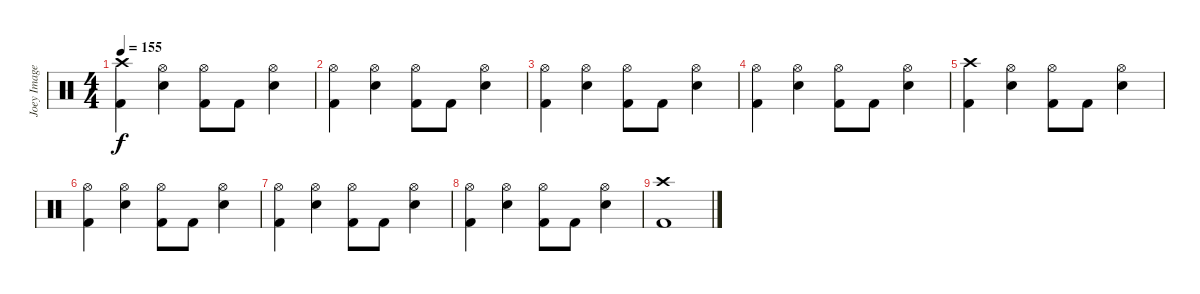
\track ("Joey Image" "Joey Image") {instrument percussion}
\staff {score}
\articulation defaults
\ts (4 4)
\tempo 155
\clef neutral
\ks c
("Crash high (hit)" "Kick (hit) 2").4{dy f} ("Hi-Hat (open)" "Snare (hit) 2").4 ("Hi-Hat (open)" "Kick (hit) 2").8 "Kick (hit) 2".8 ("Hi-Hat (open)" "Snare (hit) 2").4 |
("Hi-Hat (open)" "Kick (hit) 2").4 ("Hi-Hat (open)" "Snare (hit) 2").4 ("Hi-Hat (open)" "Kick (hit) 2").8 "Kick (hit) 2".8 ("Hi-Hat (open)" "Snare (hit) 2").4 |
("Hi-Hat (open)" "Kick (hit) 2").4 ("Hi-Hat (open)" "Snare (hit) 2").4 ("Hi-Hat (open)" "Kick (hit) 2").8 "Kick (hit) 2".8 ("Hi-Hat (open)" "Snare (hit) 2").4 |
("Hi-Hat (open)" "Kick (hit) 2").4 ("Hi-Hat (open)" "Snare (hit) 2").4 ("Hi-Hat (open)" "Kick (hit) 2").8 "Kick (hit) 2".8 ("Hi-Hat (open)" "Snare (hit) 2").4 |
("Crash high (hit)" "Kick (hit) 2").4 ("Hi-Hat (open)" "Snare (hit) 2").4 ("Hi-Hat (open)" "Kick (hit) 2").8 "Kick (hit) 2".8 ("Hi-Hat (open)" "Snare (hit) 2").4 |
("Hi-Hat (open)" "Kick (hit) 2").4 ("Hi-Hat (open)" "Snare (hit) 2").4 ("Hi-Hat (open)" "Kick (hit) 2").8 "Kick (hit) 2".8 ("Hi-Hat (open)" "Snare (hit) 2").4 |
("Hi-Hat (open)" "Kick (hit) 2").4 ("Hi-Hat (open)" "Snare (hit) 2").4 ("Hi-Hat (open)" "Kick (hit) 2").8 "Kick (hit) 2".8 ("Hi-Hat (open)" "Snare (hit) 2").4 |
("Hi-Hat (open)" "Kick (hit) 2").4 ("Hi-Hat (open)" "Snare (hit) 2").4 ("Hi-Hat (open)" "Kick (hit) 2").8 "Kick (hit) 2".8 ("Hi-Hat (open)" "Snare (hit) 2").4 |
("Crash high (hit)" "Kick (hit) 2").1
